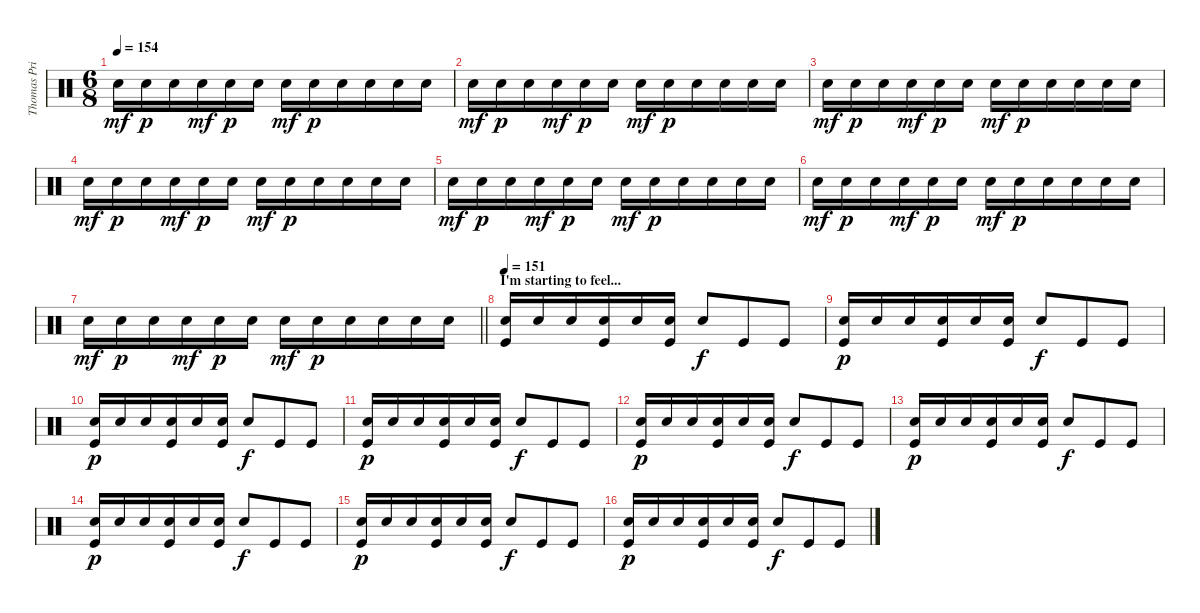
\track ("Thomas Pridgen" "Thomas Pri") {instrument percussion}
\staff {score}
\articulation defaults
\ts (6 8)
\tempo 154
\clef neutral
\ks c "Snare (hit) 2".16{dy mf} "Snare (hit) 2".16{dy p} "Snare (hit) 2".16 "Snare (hit) 2".16{dy mf} "Snare (hit) 2".16{dy p} "Snare (hit) 2".16 "Snare (hit) 2".16{dy mf} "Snare (hit) 2".16{dy p} "Snare (hit) 2".16 "Snare (hit) 2".16 "Snare (hit) 2".16 "Snare (hit) 2".16
|
"Snare (hit) 2".16{dy mf} "Snare (hit) 2".16{dy p} "Snare (hit) 2".16 "Snare (hit) 2".16{dy mf} "Snare (hit) 2".16{dy p} "Snare (hit) 2".16 "Snare (hit) 2".16{dy mf} "Snare (hit) 2".16{dy p} "Snare (hit) 2".16 "Snare (hit) 2".16 "Snare (hit) 2".16 "Snare (hit) 2".16 |
"Snare (hit) 2".16{dy mf} "Snare (hit) 2".16{dy p} "Snare (hit) 2".16 "Snare (hit) 2".16{dy mf} "Snare (hit) 2".16{dy p} "Snare (hit) 2".16 "Snare (hit) 2".16{dy mf} "Snare (hit) 2".16{dy p} "Snare (hit) 2".16 "Snare (hit) 2".16 "Snare (hit) 2".16 "Snare (hit) 2".16 |
"Snare (hit) 2".16{dy mf} "Snare (hit) 2".16{dy p} "Snare (hit) 2".16 "Snare (hit) 2".16{dy mf} "Snare (hit) 2".16{dy p} "Snare (hit) 2".16 "Snare (hit) 2".16{dy mf} "Snare (hit) 2".16{dy p} "Snare (hit) 2".16 "Snare (hit) 2".16 "Snare (hit) 2".16 "Snare (hit) 2".16 |
"Snare (hit) 2".16{dy mf} "Snare (hit) 2".16{dy p} "Snare (hit) 2".16 "Snare (hit) 2".16{dy mf} "Snare (hit) 2".16{dy p} "Snare (hit) 2".16 "Snare (hit) 2".16{dy mf} "Snare (hit) 2".16{dy p} "Snare (hit) 2".16 "Snare (hit) 2".16 "Snare (hit) 2".16 "Snare (hit) 2".16 |
"Snare (hit) 2".16{dy mf} "Snare (hit) 2".16{dy p} "Snare (hit) 2".16 "Snare (hit) 2".16{dy mf} "Snare (hit) 2".16{dy p} "Snare (hit) 2".16 "Snare (hit) 2".16{dy mf} "Snare (hit) 2".16{dy p} "Snare (hit) 2".16 "Snare (hit) 2".16 "Snare (hit) 2".16 "Snare (hit) 2".16 |
\barLineRight lightlight "Snare (hit) 2".16{dy mf} "Snare (hit) 2".16{dy p} "Snare (hit) 2".16 "Snare (hit) 2".16{dy mf} "Snare (hit) 2".16{dy p} "Snare (hit) 2".16 "Snare (hit) 2".16{dy mf} "Snare (hit) 2".16{dy p} "Snare (hit) 2".16 "Snare (hit) 2".16 "Snare (hit) 2".16 "Snare (hit) 2".16
|
\section ("" "I'm starting to feel...")
\tempo 151
("Snare (hit) 2" "Kick (hit)").16 "Snare (hit) 2".16 "Snare (hit) 2".16 ("Snare (hit) 2" "Kick (hit)").16 "Snare (hit) 2".16 ("Snare (hit) 2" "Kick (hit)").16 "Snare (hit) 2".8{dy f} "Kick (hit)".8 "Kick (hit)".8 |
("Snare (hit) 2" "Kick (hit)").16{dy p} "Snare (hit) 2".16 "Snare (hit) 2".16 ("Snare (hit) 2" "Kick (hit)").16 "Snare (hit) 2".16 ("Snare (hit) 2" "Kick (hit)").16 "Snare (hit) 2".8{dy f} "Kick (hit)".8 "Kick (hit)".8 |
("Snare (hit) 2" "Kick (hit)").16{dy p} "Snare (hit) 2".16 "Snare (hit) 2".16 ("Snare (hit) 2" "Kick (hit)").16 "Snare (hit) 2".16 ("Snare (hit) 2" "Kick (hit)").16 "Snare (hit) 2".8{dy f} "Kick (hit)".8 "Kick (hit)".8 |
("Snare (hit) 2" "Kick (hit)").16{dy p} "Snare (hit) 2".16 "Snare (hit) 2".16 ("Snare (hit) 2" "Kick (hit)").16 "Snare (hit) 2".16 ("Snare (hit) 2" "Kick (hit)").16 "Snare (hit) 2".8{dy f} "Kick (hit)".8 "Kick (hit)".8 |
("Snare (hit) 2" "Kick (hit)").16{dy p} "Snare (hit) 2".16 "Snare (hit) 2".16 ("Snare (hit) 2" "Kick (hit)").16 "Snare (hit) 2".16 ("Snare (hit) 2" "Kick (hit)").16 "Snare (hit) 2".8{dy f} "Kick (hit)".8 "Kick (hit)".8 |
("Snare (hit) 2" "Kick (hit)").16{dy p} "Snare (hit) 2".16 "Snare (hit) 2".16 ("Snare (hit) 2" "Kick (hit)").16 "Snare (hit) 2".16 ("Snare (hit) 2" "Kick (hit)").16 "Snare (hit) 2".8{dy f} "Kick (hit)".8 "Kick (hit)".8 |
("Snare (hit) 2" "Kick (hit)").16{dy p} "Snare (hit) 2".16 "Snare (hit) 2".16 ("Snare (hit) 2" "Kick (hit)").16 "Snare (hit) 2".16 ("Snare (hit) 2" "Kick (hit)").16 "Snare (hit) 2".8{dy f} "Kick (hit)".8 "Kick (hit)".8 |
("Snare (hit) 2" "Kick (hit)").16{dy p} "Snare (hit) 2".16 "Snare (hit) 2".16 ("Snare (hit) 2" "Kick (hit)").16 "Snare (hit) 2".16 ("Snare (hit) 2" "Kick (hit)").16 "Snare (hit) 2".8{dy f} "Kick (hit)".8 "Kick (hit)".8 |
("Snare (hit) 2" "Kick (hit)").16{dy p} "Snare (hit) 2".16 "Snare (hit) 2".16 ("Snare (hit) 2" "Kick (hit)").16 "Snare (hit) 2".16 ("Snare (hit) 2" "Kick (hit)").16 "Snare (hit) 2".8{dy f} "Kick (hit)".8 "Kick (hit)".8
